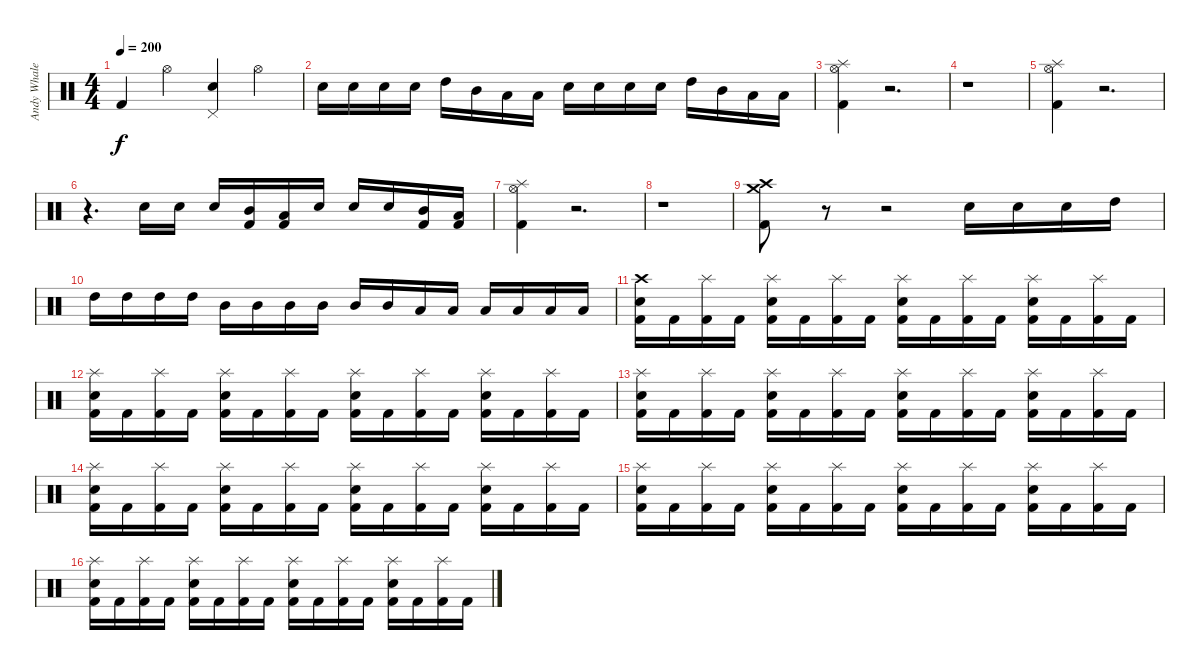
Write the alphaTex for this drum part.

\track ("Andy Whale" "Andy Whale") {instrument percussion}
\staff {score}
\articulation defaults
\ts (4 4)
\tempo 200
\clef neutral
\ks c "Kick (hit) 2".4{dy f} "Hi-Hat (open)".4
("Pedal Hi-Hat (hit)" "Snare (hit) 2").4 "Hi-Hat (open)".4 |
"Snare (hit) 2".16 "Snare (hit) 2".16 "Snare (hit) 2".16 "Snare (hit) 2".16 "High Tom (hit)".16 "Mid Tom (hit)".16 "Low Tom (hit)".16 "Low Tom (hit)".16 "Snare (hit) 2".16 "Snare (hit) 2".16 "Snare (hit) 2".16 "Snare (hit) 2".16 "High Tom (hit)".16 "Mid Tom (hit)".16 "Low Tom (hit)".16 "Low Tom (hit)".16 |
("Splash (hit)" "Hi-Hat (open)" "Kick (hit) 2").4 r.2{d} |
r.1 |
("Splash (hit)" "Hi-Hat (open)" "Kick (hit) 2").4 r.2{d} |
r.4{d} "Snare (hit) 2".16 "Snare (hit) 2".16 "Snare (hit) 2".16 ("Mid Tom (hit)" "Kick (hit) 2").16 ("Low Tom (hit)" "Kick (hit) 2").16 "Snare (hit) 2".16 "Snare (hit) 2".16 "Snare (hit) 2".16 ("Mid Tom (hit)" "Kick (hit) 2").16 ("Low Tom (hit)" "Kick (hit) 2").16 |
("Splash (hit)" "Hi-Hat (open)" "Kick (hit) 2").4 r.2{d} |
r.1 |
("Crash medium (hit)" "Crash high (hit)" "Kick (hit) 2").8 r.8 r.2 "Snare (hit) 2".16 "Snare (hit) 2".16 "Snare (hit) 2".16 "High Tom (hit)".16 |
"High Tom (hit)".16 "High Tom (hit)".16 "High Tom (hit)".16 "High Tom (hit)".16 "Mid Tom (hit)".16 "Mid Tom (hit)".16 "Mid Tom (hit)".16 "Mid Tom (hit)".16 "Mid Tom (hit)".16 "Mid Tom (hit)".16 "Low Tom (hit)".16 "Low Tom (hit)".16 "Low Tom (hit)".16 "Low Tom (hit)".16 "Low Tom (hit)".16 "Low Tom (hit)".16 |
("Crash high (hit)" "Snare (hit) 2" "Kick (hit) 2").16 "Kick (hit) 2".16 ("Splash (hit)" "Kick (hit) 2").16 "Kick (hit) 2".16 ("Splash (hit)" "Snare (hit) 2" "Kick (hit) 2").16 "Kick (hit) 2".16 ("Splash (hit)" "Kick (hit) 2").16 "Kick (hit) 2".16 ("Splash (hit)" "Snare (hit) 2" "Kick (hit) 2").16 "Kick (hit) 2".16 ("Splash (hit)" "Kick (hit) 2").16 "Kick (hit) 2".16 ("Splash (hit)" "Snare (hit) 2" "Kick (hit) 2").16 "Kick (hit) 2".16 ("Splash (hit)" "Kick (hit) 2").16 "Kick (hit) 2".16 |
("Splash (hit)" "Snare (hit) 2" "Kick (hit) 2").16 "Kick (hit) 2".16 ("Splash (hit)" "Kick (hit) 2").16 "Kick (hit) 2".16 ("Splash (hit)" "Snare (hit) 2" "Kick (hit) 2").16 "Kick (hit) 2".16 ("Splash (hit)" "Kick (hit) 2").16 "Kick (hit) 2".16 ("Splash (hit)" "Snare (hit) 2" "Kick (hit) 2").16 "Kick (hit) 2".16 ("Splash (hit)" "Kick (hit) 2").16 "Kick (hit) 2".16 ("Splash (hit)" "Snare (hit) 2" "Kick (hit) 2").16 "Kick (hit) 2".16 ("Splash (hit)" "Kick (hit) 2").16 "Kick (hit) 2".16 |
("Splash (hit)" "Snare (hit) 2" "Kick (hit) 2").16 "Kick (hit) 2".16 ("Splash (hit)" "Kick (hit) 2").16 "Kick (hit) 2".16 ("Splash (hit)" "Snare (hit) 2" "Kick (hit) 2").16 "Kick (hit) 2".16 ("Splash (hit)" "Kick (hit) 2").16 "Kick (hit) 2".16 ("Splash (hit)" "Snare (hit) 2" "Kick (hit) 2").16 "Kick (hit) 2".16 ("Splash (hit)" "Kick (hit) 2").16 "Kick (hit) 2".16 ("Splash (hit)" "Snare (hit) 2" "Kick (hit) 2").16 "Kick (hit) 2".16 ("Splash (hit)" "Kick (hit) 2").16 "Kick (hit) 2".16 |
("Splash (hit)" "Snare (hit) 2" "Kick (hit) 2").16 "Kick (hit) 2".16 ("Splash (hit)" "Kick (hit) 2").16 "Kick (hit) 2".16 ("Splash (hit)" "Snare (hit) 2" "Kick (hit) 2").16 "Kick (hit) 2".16 ("Splash (hit)" "Kick (hit) 2").16 "Kick (hit) 2".16 ("Splash (hit)" "Snare (hit) 2" "Kick (hit) 2").16 "Kick (hit) 2".16 ("Splash (hit)" "Kick (hit) 2").16 "Kick (hit) 2".16 ("Splash (hit)" "Snare (hit) 2" "Kick (hit) 2").16 "Kick (hit) 2".16 ("Splash (hit)" "Kick (hit) 2").16 "Kick (hit) 2".16 |
("Splash (hit)" "Snare (hit) 2" "Kick (hit) 2").16 "Kick (hit) 2".16 ("Splash (hit)" "Kick (hit) 2").16 "Kick (hit) 2".16 ("Splash (hit)" "Snare (hit) 2" "Kick (hit) 2").16 "Kick (hit) 2".16 ("Splash (hit)" "Kick (hit) 2").16 "Kick (hit) 2".16 ("Splash (hit)" "Snare (hit) 2" "Kick (hit) 2").16 "Kick (hit) 2".16 ("Splash (hit)" "Kick (hit) 2").16 "Kick (hit) 2".16 ("Splash (hit)" "Snare (hit) 2" "Kick (hit) 2").16 "Kick (hit) 2".16 ("Splash (hit)" "Kick (hit) 2").16 "Kick (hit) 2".16 |
("Splash (hit)" "Snare (hit) 2" "Kick (hit) 2").16 "Kick (hit) 2".16 ("Splash (hit)" "Kick (hit) 2").16 "Kick (hit) 2".16 ("Splash (hit)" "Snare (hit) 2" "Kick (hit) 2").16 "Kick (hit) 2".16 ("Splash (hit)" "Kick (hit) 2").16 "Kick (hit) 2".16 ("Splash (hit)" "Snare (hit) 2" "Kick (hit) 2").16 "Kick (hit) 2".16 ("Splash (hit)" "Kick (hit) 2").16 "Kick (hit) 2".16 ("Splash (hit)" "Snare (hit) 2" "Kick (hit) 2").16 "Kick (hit) 2".16 ("Splash (hit)" "Kick (hit) 2").16 "Kick (hit) 2".16
